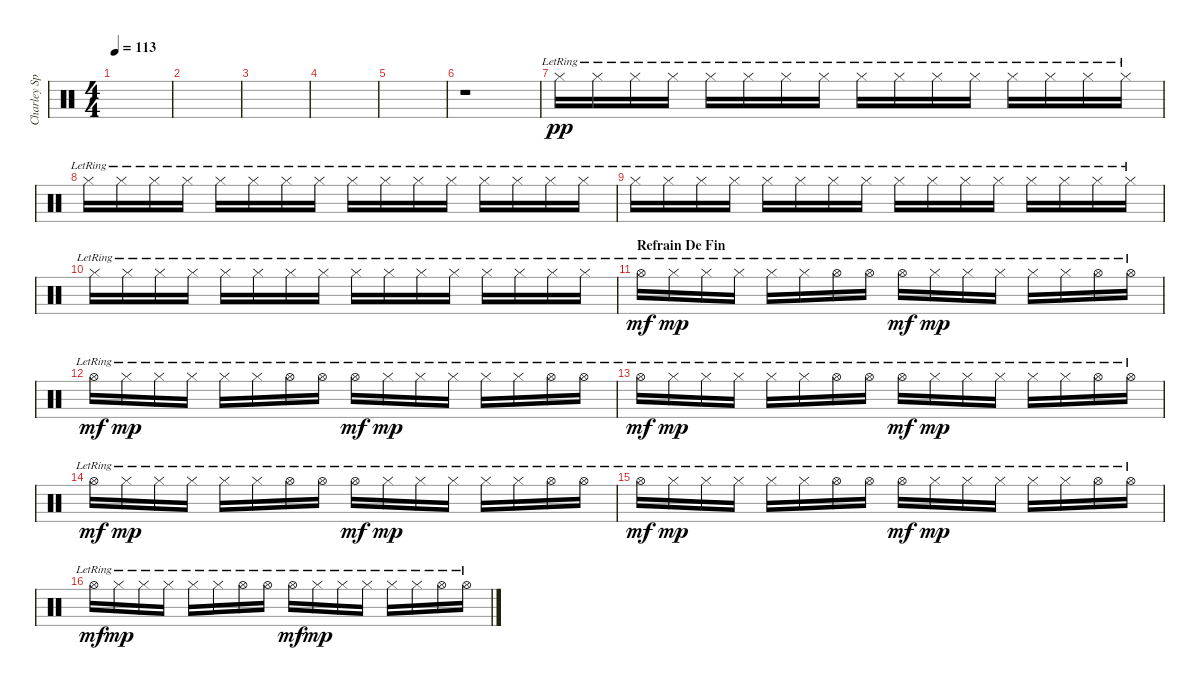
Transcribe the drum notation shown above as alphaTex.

\track ("Charley Spec." "Charley Sp") {instrument percussion}
\staff {score}
\articulation defaults
\ts (4 4)
\tempo 113
\clef neutral
\ks c
|
|
|
|
|
r.1 |
"Hi-Hat (closed)"{lr}.16{dy pp} "Hi-Hat (closed)"{lr}.16 "Hi-Hat (closed)"{lr}.16 "Hi-Hat (closed)"{lr}.16 "Hi-Hat (closed)"{lr}.16 "Hi-Hat (closed)"{lr}.16 "Hi-Hat (closed)"{lr}.16 "Hi-Hat (closed)"{lr}.16 "Hi-Hat (closed)"{lr}.16 "Hi-Hat (closed)"{lr}.16 "Hi-Hat (closed)"{lr}.16 "Hi-Hat (closed)"{lr}.16 "Hi-Hat (closed)"{lr}.16 "Hi-Hat (closed)"{lr}.16 "Hi-Hat (closed)"{lr}.16 "Hi-Hat (closed)"{lr}.16 |
"Hi-Hat (closed)"{lr}.16 "Hi-Hat (closed)"{lr}.16 "Hi-Hat (closed)"{lr}.16 "Hi-Hat (closed)"{lr}.16 "Hi-Hat (closed)"{lr}.16 "Hi-Hat (closed)"{lr}.16 "Hi-Hat (closed)"{lr}.16 "Hi-Hat (closed)"{lr}.16 "Hi-Hat (closed)"{lr}.16 "Hi-Hat (closed)"{lr}.16 "Hi-Hat (closed)"{lr}.16 "Hi-Hat (closed)"{lr}.16 "Hi-Hat (closed)"{lr}.16 "Hi-Hat (closed)"{lr}.16 "Hi-Hat (closed)"{lr}.16 "Hi-Hat (closed)"{lr}.16 |
"Hi-Hat (closed)"{lr}.16 "Hi-Hat (closed)"{lr}.16 "Hi-Hat (closed)"{lr}.16 "Hi-Hat (closed)"{lr}.16 "Hi-Hat (closed)"{lr}.16 "Hi-Hat (closed)"{lr}.16 "Hi-Hat (closed)"{lr}.16 "Hi-Hat (closed)"{lr}.16 "Hi-Hat (closed)"{lr}.16 "Hi-Hat (closed)"{lr}.16 "Hi-Hat (closed)"{lr}.16 "Hi-Hat (closed)"{lr}.16 "Hi-Hat (closed)"{lr}.16 "Hi-Hat (closed)"{lr}.16 "Hi-Hat (closed)"{lr}.16 "Hi-Hat (closed)"{lr}.16 |
"Hi-Hat (closed)"{lr}.16 "Hi-Hat (closed)"{lr}.16 "Hi-Hat (closed)"{lr}.16 "Hi-Hat (closed)"{lr}.16 "Hi-Hat (closed)"{lr}.16 "Hi-Hat (closed)"{lr}.16 "Hi-Hat (closed)"{lr}.16 "Hi-Hat (closed)"{lr}.16 "Hi-Hat (closed)"{lr}.16 "Hi-Hat (closed)"{lr}.16 "Hi-Hat (closed)"{lr}.16 "Hi-Hat (closed)"{lr}.16 "Hi-Hat (closed)"{lr}.16 "Hi-Hat (closed)"{lr}.16 "Hi-Hat (closed)"{lr}.16 "Hi-Hat (closed)"{lr}.16 |
\section ("" "Refrain De Fin")
"Hi-Hat (open)"{lr}.16{dy mf} "Hi-Hat (closed)"{lr}.16{dy mp} "Hi-Hat (closed)"{lr}.16 "Hi-Hat (closed)"{lr}.16 "Hi-Hat (closed)"{lr}.16 "Hi-Hat (closed)"{lr}.16 "Hi-Hat (open)"{lr}.16 "Hi-Hat (open)"{lr}.16 "Hi-Hat (open)"{lr}.16{dy mf} "Hi-Hat (closed)"{lr}.16{dy mp} "Hi-Hat (closed)"{lr}.16 "Hi-Hat (closed)"{lr}.16 "Hi-Hat (closed)"{lr}.16 "Hi-Hat (closed)"{lr}.16 "Hi-Hat (open)"{lr}.16 "Hi-Hat (open)"{lr}.16 |
"Hi-Hat (open)"{lr}.16{dy mf} "Hi-Hat (closed)"{lr}.16{dy mp} "Hi-Hat (closed)"{lr}.16 "Hi-Hat (closed)"{lr}.16 "Hi-Hat (closed)"{lr}.16 "Hi-Hat (closed)"{lr}.16 "Hi-Hat (open)"{lr}.16 "Hi-Hat (open)"{lr}.16 "Hi-Hat (open)"{lr}.16{dy mf} "Hi-Hat (closed)"{lr}.16{dy mp} "Hi-Hat (closed)"{lr}.16 "Hi-Hat (closed)"{lr}.16 "Hi-Hat (closed)"{lr}.16 "Hi-Hat (closed)"{lr}.16 "Hi-Hat (open)"{lr}.16 "Hi-Hat (open)"{lr}.16 |
"Hi-Hat (open)"{lr}.16{dy mf} "Hi-Hat (closed)"{lr}.16{dy mp} "Hi-Hat (closed)"{lr}.16 "Hi-Hat (closed)"{lr}.16 "Hi-Hat (closed)"{lr}.16 "Hi-Hat (closed)"{lr}.16 "Hi-Hat (open)"{lr}.16 "Hi-Hat (open)"{lr}.16 "Hi-Hat (open)"{lr}.16{dy mf} "Hi-Hat (closed)"{lr}.16{dy mp} "Hi-Hat (closed)"{lr}.16 "Hi-Hat (closed)"{lr}.16 "Hi-Hat (closed)"{lr}.16 "Hi-Hat (closed)"{lr}.16 "Hi-Hat (open)"{lr}.16 "Hi-Hat (open)"{lr}.16 |
"Hi-Hat (open)"{lr}.16{dy mf} "Hi-Hat (closed)"{lr}.16{dy mp} "Hi-Hat (closed)"{lr}.16 "Hi-Hat (closed)"{lr}.16 "Hi-Hat (closed)"{lr}.16 "Hi-Hat (closed)"{lr}.16 "Hi-Hat (open)"{lr}.16 "Hi-Hat (open)"{lr}.16 "Hi-Hat (open)"{lr}.16{dy mf} "Hi-Hat (closed)"{lr}.16{dy mp} "Hi-Hat (closed)"{lr}.16 "Hi-Hat (closed)"{lr}.16 "Hi-Hat (closed)"{lr}.16 "Hi-Hat (closed)"{lr}.16 "Hi-Hat (open)"{lr}.16 "Hi-Hat (open)"{lr}.16 |
"Hi-Hat (open)"{lr}.16{dy mf} "Hi-Hat (closed)"{lr}.16{dy mp} "Hi-Hat (closed)"{lr}.16 "Hi-Hat (closed)"{lr}.16 "Hi-Hat (closed)"{lr}.16 "Hi-Hat (closed)"{lr}.16 "Hi-Hat (open)"{lr}.16 "Hi-Hat (open)"{lr}.16 "Hi-Hat (open)"{lr}.16{dy mf} "Hi-Hat (closed)"{lr}.16{dy mp} "Hi-Hat (closed)"{lr}.16 "Hi-Hat (closed)"{lr}.16 "Hi-Hat (closed)"{lr}.16 "Hi-Hat (closed)"{lr}.16 "Hi-Hat (open)"{lr}.16 "Hi-Hat (open)"{lr}.16 |
"Hi-Hat (open)"{lr}.16{dy mf} "Hi-Hat (closed)"{lr}.16{dy mp} "Hi-Hat (closed)"{lr}.16 "Hi-Hat (closed)"{lr}.16 "Hi-Hat (closed)"{lr}.16 "Hi-Hat (closed)"{lr}.16 "Hi-Hat (open)"{lr}.16 "Hi-Hat (open)"{lr}.16 "Hi-Hat (open)"{lr}.16{dy mf} "Hi-Hat (closed)"{lr}.16{dy mp} "Hi-Hat (closed)"{lr}.16 "Hi-Hat (closed)"{lr}.16 "Hi-Hat (closed)"{lr}.16 "Hi-Hat (closed)"{lr}.16 "Hi-Hat (open)"{lr}.16 "Hi-Hat (open)"{lr}.16
